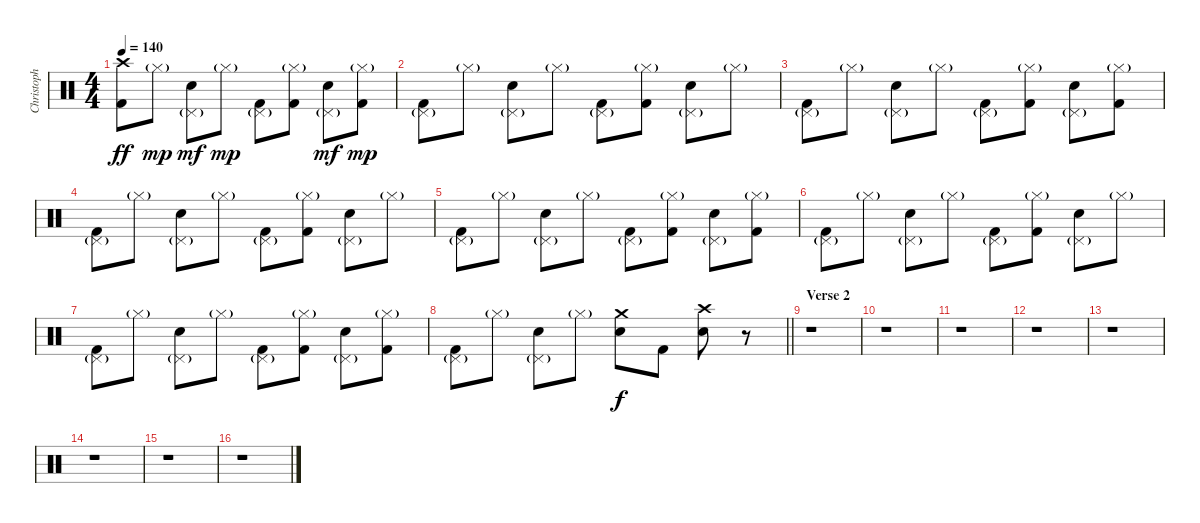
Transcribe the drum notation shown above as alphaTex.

\track ("Christoph" "Christoph") {instrument percussion}
\staff {score}
\articulation defaults
\ts (4 4)
\tempo 140
\clef neutral
\ks c
("Crash high (hit)" "Kick (hit) 2").8{dy ff} "Hi-Hat (closed)"{g}.8{dy mp} ("Pedal Hi-Hat (hit)"{g} "Electric Snare (hit)").8{dy mf} "Hi-Hat (closed)"{g}.8{dy mp} ("Pedal Hi-Hat (hit)"{g} "Kick (hit) 2").8 ("Hi-Hat (closed)"{g} "Kick (hit) 2").8 ("Pedal Hi-Hat (hit)"{g} "Electric Snare (hit)").8{dy mf} ("Hi-Hat (closed)"{g} "Kick (hit) 2").8{dy mp} |
("Pedal Hi-Hat (hit)"{g} "Kick (hit) 2").8 "Hi-Hat (closed)"{g}.8 ("Pedal Hi-Hat (hit)"{g} "Electric Snare (hit)").8 "Hi-Hat (closed)"{g}.8 ("Pedal Hi-Hat (hit)"{g} "Kick (hit) 2").8 ("Hi-Hat (closed)"{g} "Kick (hit) 2").8 ("Pedal Hi-Hat (hit)"{g} "Electric Snare (hit)").8 "Hi-Hat (closed)"{g}.8 |
("Pedal Hi-Hat (hit)"{g} "Kick (hit) 2").8 "Hi-Hat (closed)"{g}.8 ("Pedal Hi-Hat (hit)"{g} "Electric Snare (hit)").8 "Hi-Hat (closed)"{g}.8 ("Pedal Hi-Hat (hit)"{g} "Kick (hit) 2").8 ("Hi-Hat (closed)"{g} "Kick (hit) 2").8 ("Pedal Hi-Hat (hit)"{g} "Electric Snare (hit)").8 ("Hi-Hat (closed)"{g} "Kick (hit) 2").8 |
("Pedal Hi-Hat (hit)"{g} "Kick (hit) 2").8 "Hi-Hat (closed)"{g}.8 ("Pedal Hi-Hat (hit)"{g} "Electric Snare (hit)").8 "Hi-Hat (closed)"{g}.8 ("Pedal Hi-Hat (hit)"{g} "Kick (hit) 2").8 ("Hi-Hat (closed)"{g} "Kick (hit) 2").8 ("Pedal Hi-Hat (hit)"{g} "Electric Snare (hit)").8 "Hi-Hat (closed)"{g}.8 |
("Pedal Hi-Hat (hit)"{g} "Kick (hit) 2").8 "Hi-Hat (closed)"{g}.8 ("Pedal Hi-Hat (hit)"{g} "Electric Snare (hit)").8 "Hi-Hat (closed)"{g}.8 ("Pedal Hi-Hat (hit)"{g} "Kick (hit) 2").8 ("Hi-Hat (closed)"{g} "Kick (hit) 2").8 ("Pedal Hi-Hat (hit)"{g} "Electric Snare (hit)").8 ("Hi-Hat (closed)"{g} "Kick (hit) 2").8 |
("Pedal Hi-Hat (hit)"{g} "Kick (hit) 2").8 "Hi-Hat (closed)"{g}.8 ("Pedal Hi-Hat (hit)"{g} "Electric Snare (hit)").8 "Hi-Hat (closed)"{g}.8 ("Pedal Hi-Hat (hit)"{g} "Kick (hit) 2").8 ("Hi-Hat (closed)"{g} "Kick (hit) 2").8 ("Pedal Hi-Hat (hit)"{g} "Electric Snare (hit)").8 "Hi-Hat (closed)"{g}.8 |
("Pedal Hi-Hat (hit)"{g} "Kick (hit) 2").8 "Hi-Hat (closed)"{g}.8 ("Pedal Hi-Hat (hit)"{g} "Electric Snare (hit)").8 "Hi-Hat (closed)"{g}.8 ("Pedal Hi-Hat (hit)"{g} "Kick (hit) 2").8 ("Hi-Hat (closed)"{g} "Kick (hit) 2").8 ("Pedal Hi-Hat (hit)"{g} "Electric Snare (hit)").8 ("Hi-Hat (closed)"{g} "Kick (hit) 2").8 |
\barLineRight lightlight
("Pedal Hi-Hat (hit)"{g} "Kick (hit) 2").8 "Hi-Hat (closed)"{g}.8 ("Pedal Hi-Hat (hit)"{g} "Electric Snare (hit)").8 "Hi-Hat (closed)"{g}.8 ("Crash medium (hit)" "Electric Snare (hit)").8{dy f} "Kick (hit) 2".8 ("Crash high (hit)" "Electric Snare (hit)").8 r.8 |
\section ("" "Verse 2")
r.1 |
r.1 |
r.1 |
r.1 |
r.1 |
r.1 |
r.1 |
r.1
